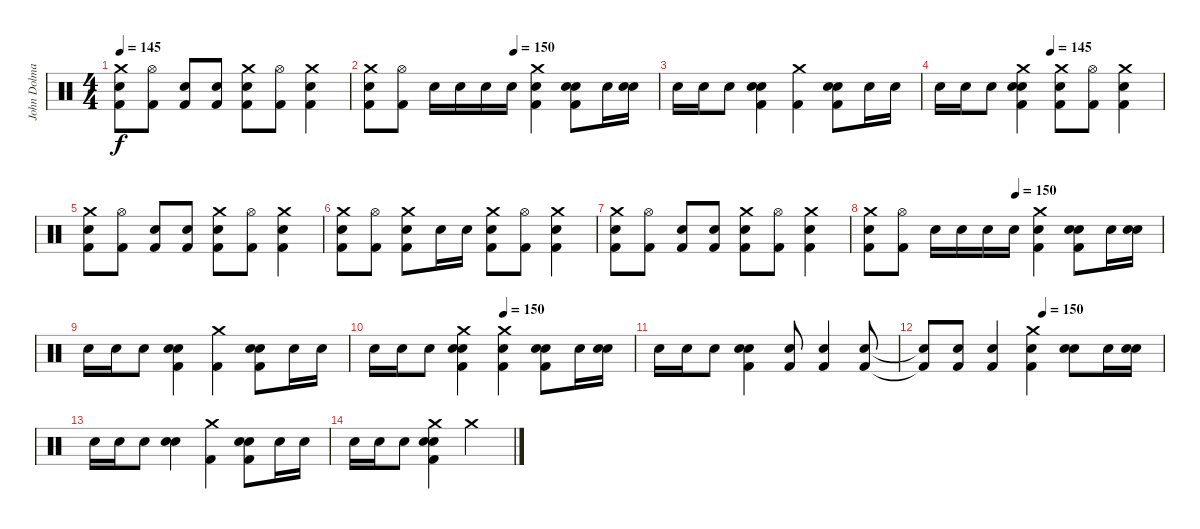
\track ("John Dolmayan" "John Dolma") {instrument percussion}
\staff {score}
\articulation defaults
\ts (4 4)
\tempo 145
\clef neutral
\ks c
("Crash medium (hit)" "Electric Snare (hit)" "Kick (hit) 2").8{dy f} ("Hi-Hat (open)" "Kick (hit) 2").8 ("Snare (hit) 2" "Kick (hit) 2").8 ("Electric Snare (hit)" "Kick (hit) 2").8 ("Crash medium (hit)" "Electric Snare (hit)" "Kick (hit) 2").8 ("Hi-Hat (open)" "Kick (hit) 2").8 ("Crash medium (hit)" "Electric Snare (hit)" "Kick (hit) 2").4 |
\tempo (150 0.5)
("Crash medium (hit)" "Electric Snare (hit)" "Kick (hit) 2").8 ("Hi-Hat (open)" "Kick (hit) 2").8 "Electric Snare (hit)".16 "Electric Snare (hit)".16 "Electric Snare (hit)".16 "Electric Snare (hit)".16 ("Crash medium (hit)" "Electric Snare (hit)" "Kick (hit) 2").4 ("Snare (hit) 2" "Electric Snare (hit)" "Kick (hit) 2").8 "Electric Snare (hit)".16 ("Snare (hit) 2" "Electric Snare (hit)").16 |
"Electric Snare (hit)".16 "Electric Snare (hit)".16 "Electric Snare (hit)".8 ("Snare (hit) 2" "Electric Snare (hit)" "Kick (hit) 2").4 ("Crash medium (hit)" "Kick (hit) 2").4 ("Snare (hit) 2" "Electric Snare (hit)" "Kick (hit) 2").8 "Electric Snare (hit)".16 "Electric Snare (hit)".16 |
\tempo (145 0.5)
"Electric Snare (hit)".16 "Electric Snare (hit)".16 "Electric Snare (hit)".8 ("Crash medium (hit)" "Snare (hit) 2" "Electric Snare (hit)" "Kick (hit) 2").4 ("Crash medium (hit)" "Electric Snare (hit)" "Kick (hit) 2").8 ("Hi-Hat (open)" "Kick (hit) 2").8 ("Crash medium (hit)" "Electric Snare (hit)" "Kick (hit) 2").4 |
("Crash medium (hit)" "Electric Snare (hit)" "Kick (hit) 2").8 ("Hi-Hat (open)" "Kick (hit) 2").8 ("Snare (hit) 2" "Kick (hit) 2").8 ("Electric Snare (hit)" "Kick (hit) 2").8 ("Crash medium (hit)" "Electric Snare (hit)" "Kick (hit) 2").8 ("Hi-Hat (open)" "Kick (hit) 2").8 ("Crash medium (hit)" "Electric Snare (hit)" "Kick (hit) 2").4 |
("Crash medium (hit)" "Electric Snare (hit)" "Kick (hit) 2").8 ("Hi-Hat (open)" "Kick (hit) 2").8 ("Crash medium (hit)" "Electric Snare (hit)" "Kick (hit) 2").8 "Electric Snare (hit)".16 "Electric Snare (hit)".16 ("Crash medium (hit)" "Electric Snare (hit)" "Kick (hit) 2").8 ("Hi-Hat (open)" "Kick (hit) 2").8 ("Crash medium (hit)" "Electric Snare (hit)" "Kick (hit) 2").4 |
("Crash medium (hit)" "Electric Snare (hit)" "Kick (hit) 2").8 ("Hi-Hat (open)" "Kick (hit) 2").8 ("Snare (hit) 2" "Kick (hit) 2").8 ("Electric Snare (hit)" "Kick (hit) 2").8 ("Crash medium (hit)" "Electric Snare (hit)" "Kick (hit) 2").8 ("Hi-Hat (open)" "Kick (hit) 2").8 ("Crash medium (hit)" "Electric Snare (hit)" "Kick (hit) 2").4 |
\tempo (150 0.5)
("Crash medium (hit)" "Electric Snare (hit)" "Kick (hit) 2").8 ("Hi-Hat (open)" "Kick (hit) 2").8 "Electric Snare (hit)".16 "Electric Snare (hit)".16 "Electric Snare (hit)".16 "Electric Snare (hit)".16 ("Crash medium (hit)" "Electric Snare (hit)" "Kick (hit) 2").4 ("Snare (hit) 2" "Electric Snare (hit)" "Kick (hit) 2").8 "Electric Snare (hit)".16 ("Snare (hit) 2" "Electric Snare (hit)").16 |
"Electric Snare (hit)".16 "Electric Snare (hit)".16 "Electric Snare (hit)".8 ("Snare (hit) 2" "Electric Snare (hit)" "Kick (hit) 2").4 ("Crash medium (hit)" "Kick (hit) 2").4 ("Snare (hit) 2" "Electric Snare (hit)" "Kick (hit) 2").8 "Electric Snare (hit)".16 "Electric Snare (hit)".16 |
\tempo (150 0.5)
"Electric Snare (hit)".16 "Electric Snare (hit)".16 "Electric Snare (hit)".8 ("Crash medium (hit)" "Snare (hit) 2" "Electric Snare (hit)" "Kick (hit) 2").4 ("Crash medium (hit)" "Electric Snare (hit)" "Kick (hit) 2").4 ("Snare (hit) 2" "Electric Snare (hit)" "Kick (hit) 2").8 "Electric Snare (hit)".16 ("Snare (hit) 2" "Electric Snare (hit)").16 |
"Electric Snare (hit)".16 "Electric Snare (hit)".16 "Electric Snare (hit)".8 ("Snare (hit) 2" "Electric Snare (hit)" "Kick (hit) 2").4 ("Electric Snare (hit)" "Kick (hit) 2").8 ("Electric Snare (hit)" "Kick (hit) 2").4 ("Electric Snare (hit)" "Kick (hit) 2").8 |
\tempo (150 0.5)
("Electric Snare (hit)"{t} "Kick (hit) 2"{t}).8 ("Electric Snare (hit)" "Kick (hit) 2").8 ("Electric Snare (hit)" "Kick (hit) 2").4 ("Crash medium (hit)" "Electric Snare (hit)" "Kick (hit) 2").4 ("Snare (hit) 2" "Electric Snare (hit)").8 "Electric Snare (hit)".16 ("Snare (hit) 2" "Electric Snare (hit)").16 |
"Electric Snare (hit)".16 "Electric Snare (hit)".16 "Electric Snare (hit)".8 ("Snare (hit) 2" "Electric Snare (hit)").4 ("Crash medium (hit)" "Kick (hit) 2").4 ("Snare (hit) 2" "Electric Snare (hit)" "Kick (hit) 2").8 "Electric Snare (hit)".16 "Electric Snare (hit)".16 |
"Electric Snare (hit)".16 "Electric Snare (hit)".16 "Electric Snare (hit)".8 ("Crash medium (hit)" "Snare (hit) 2" "Electric Snare (hit)" "Kick (hit) 2").4 "Crash medium (hit)".2
